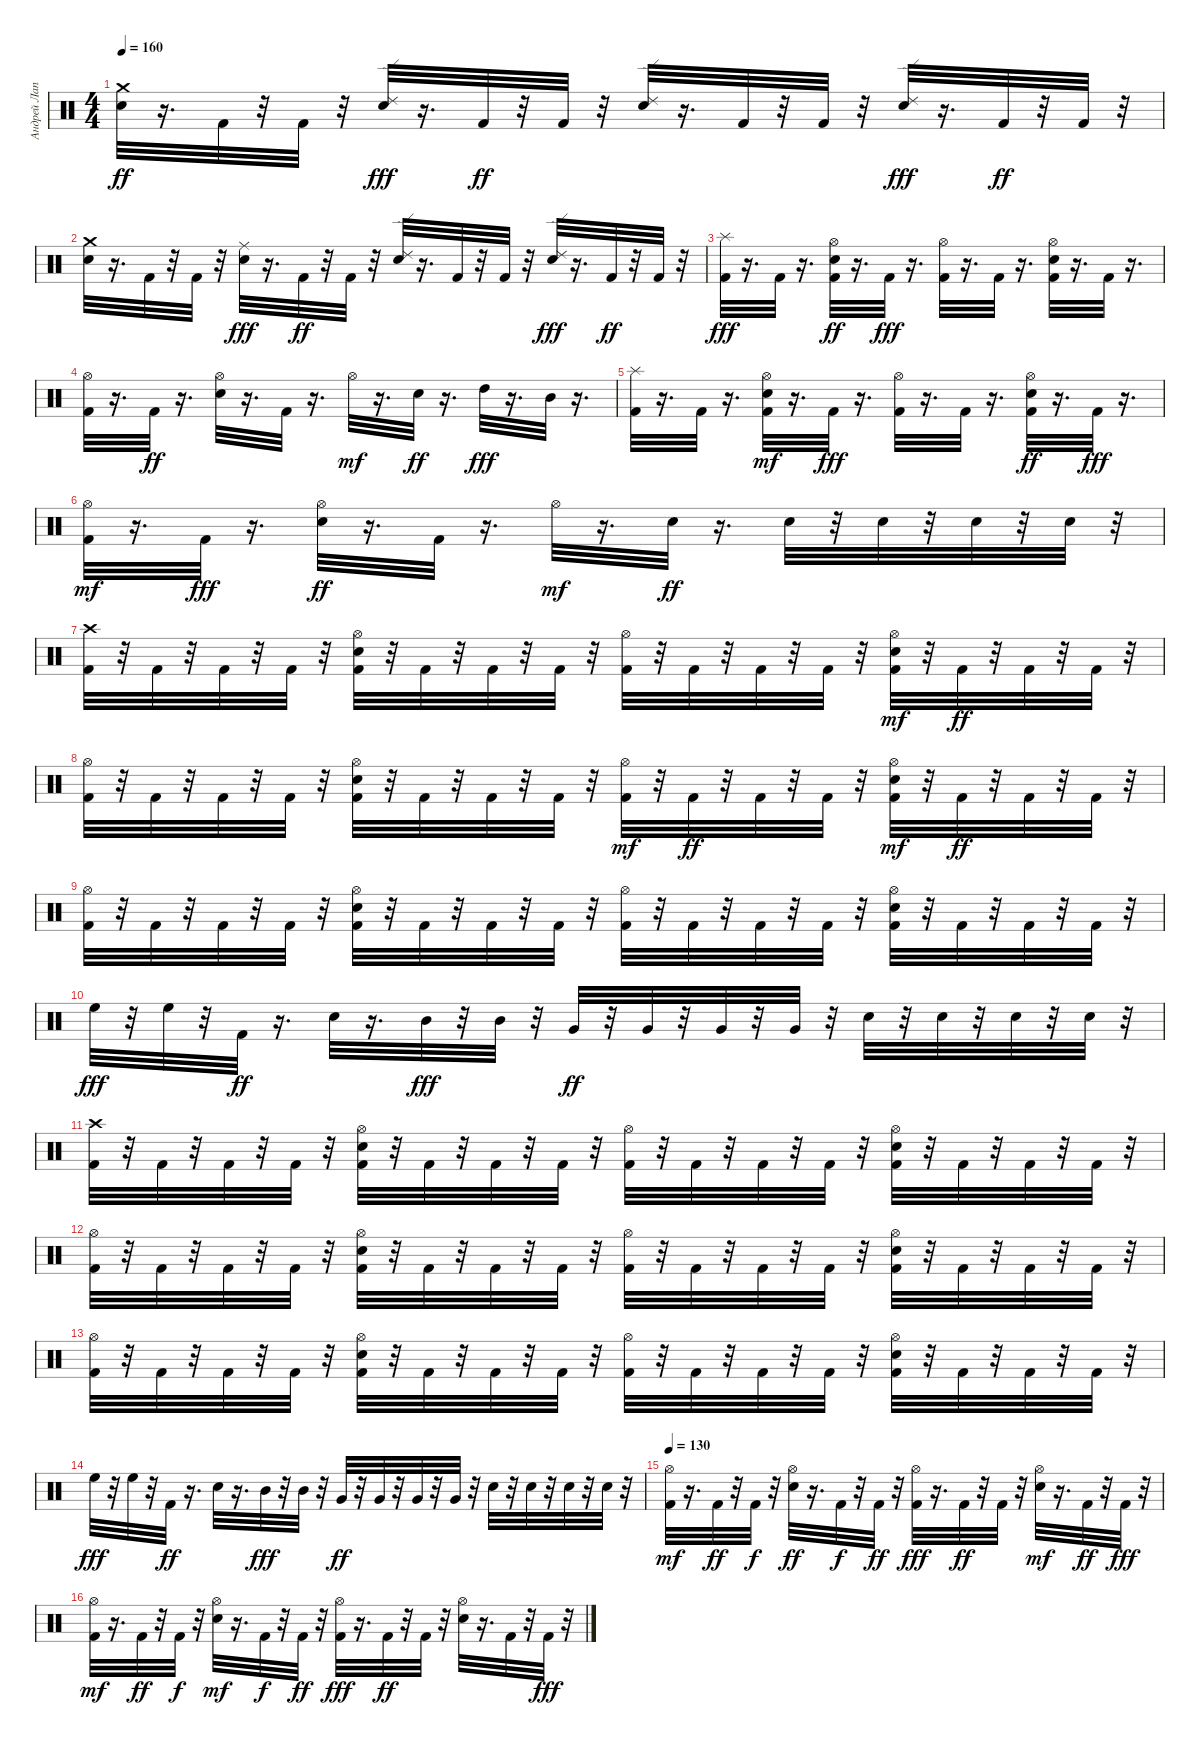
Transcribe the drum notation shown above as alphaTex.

\track ("Андрей Лаптев" "Андрей Лап") {instrument percussion}
\staff {score}
\articulation defaults
\ts (4 4)
\tempo 160
\clef neutral
\ks c
("Crash medium (hit)" "Electric Snare (hit)").32{dy ff} r.16{d} "Kick (hit) 2".32 r.32 "Kick (hit) 2".32 r.32 ("Electric Snare (hit)" "Ride (edge) 2").32{dy fff} r.16{d} "Kick (hit) 2".32{dy ff} r.32 "Kick (hit) 2".32 r.32 ("Ride (edge) 2" "Electric Snare (hit)").32 r.16{d} "Kick (hit) 2".32 r.32 "Kick (hit) 2".32 r.32 ("Electric Snare (hit)" "Ride (edge) 2").32{dy fff} r.16{d} "Kick (hit) 2".32{dy ff} r.32 "Kick (hit) 2".32 r.32 |
("Electric Snare (hit)" "Crash medium (hit)").32 r.16{d} "Kick (hit) 2".32 r.32 "Kick (hit) 2".32 r.32 ("Electric Snare (hit)" "Ride (middle)").32{dy fff} r.16{d} "Kick (hit) 2".32{dy ff} r.32 "Kick (hit) 2".32 r.32 ("Ride (edge) 2" "Electric Snare (hit)").32 r.16{d} "Kick (hit) 2".32 r.32 "Kick (hit) 2".32 r.32 ("Electric Snare (hit)" "Ride (edge) 2").32{dy fff} r.16{d} "Kick (hit) 2".32{dy ff} r.32 "Kick (hit) 2".32 r.32 |
("Kick (hit) 2" "Splash (hit)").32{dy fff} r.16{d} "Kick (hit) 2".32 r.16{d} ("Hi-Hat (open)" "Kick (hit) 2" "Electric Snare (hit)").32{dy ff} r.16{d} "Kick (hit) 2".32{dy fff} r.16{d} ("Hi-Hat (open)" "Kick (hit) 2").32 r.16{d} "Kick (hit) 2".32 r.16{d} ("Hi-Hat (open)" "Electric Snare (hit)" "Kick (hit) 2").32 r.16{d} "Kick (hit) 2".32 r.16{d} |
("Hi-Hat (open)" "Kick (hit) 2").32 r.16{d} "Kick (hit) 2".32{dy ff} r.16{d} ("Hi-Hat (open)" "Electric Snare (hit)").32 r.16{d} "Kick (hit) 2".32 r.16{d} "Hi-Hat (open)".32{dy mf} r.16{d} "Electric Snare (hit)".32{dy ff} r.16{d} "High Tom (hit)".32{dy fff} r.16{d} "Mid Tom (hit)".32 r.16{d} |
("Kick (hit) 2" "Splash (hit)").32 r.16{d} "Kick (hit) 2".32 r.16{d} ("Electric Snare (hit)" "Kick (hit) 2" "Hi-Hat (open)").32{dy mf} r.16{d} "Kick (hit) 2".32{dy fff} r.16{d} ("Hi-Hat (open)" "Kick (hit) 2").32 r.16{d} "Kick (hit) 2".32 r.16{d} ("Kick (hit) 2" "Hi-Hat (open)" "Electric Snare (hit)").32{dy ff} r.16{d} "Kick (hit) 2".32{dy fff} r.16{d} |
("Kick (hit) 2" "Hi-Hat (open)").32{dy mf} r.16{d} "Kick (hit) 2".32{dy fff} r.16{d} ("Hi-Hat (open)" "Electric Snare (hit)").32{dy ff} r.16{d} "Kick (hit) 2".32 r.16{d} "Hi-Hat (open)".32{dy mf} r.16{d} "Electric Snare (hit)".32{dy ff} r.16{d} "Electric Snare (hit)".32 r.32 "Electric Snare (hit)".32 r.32 "Electric Snare (hit)".32 r.32 "Electric Snare (hit)".32 r.32 |
("Crash high (hit)" "Kick (hit) 2").32 r.32 "Kick (hit) 2".32 r.32 "Kick (hit) 2".32 r.32 "Kick (hit) 2".32 r.32 ("Kick (hit) 2" "Hi-Hat (open)" "Electric Snare (hit)").32 r.32 "Kick (hit) 2".32 r.32 "Kick (hit) 2".32 r.32 "Kick (hit) 2".32 r.32 ("Hi-Hat (open)" "Kick (hit) 2").32 r.32 "Kick (hit) 2".32 r.32 "Kick (hit) 2".32 r.32 "Kick (hit) 2".32 r.32 ("Kick (hit) 2" "Electric Snare (hit)" "Hi-Hat (open)").32{dy mf} r.32 "Kick (hit) 2".32{dy ff} r.32 "Kick (hit) 2".32 r.32 "Kick (hit) 2".32 r.32 |
("Hi-Hat (open)" "Kick (hit) 2").32 r.32 "Kick (hit) 2".32 r.32 "Kick (hit) 2".32 r.32 "Kick (hit) 2".32 r.32 ("Kick (hit) 2" "Hi-Hat (open)" "Electric Snare (hit)").32 r.32 "Kick (hit) 2".32 r.32 "Kick (hit) 2".32 r.32 "Kick (hit) 2".32 r.32 ("Kick (hit) 2" "Hi-Hat (open)").32{dy mf} r.32 "Kick (hit) 2".32{dy ff} r.32 "Kick (hit) 2".32 r.32 "Kick (hit) 2".32 r.32 ("Kick (hit) 2" "Electric Snare (hit)" "Hi-Hat (open)").32{dy mf} r.32 "Kick (hit) 2".32{dy ff} r.32 "Kick (hit) 2".32 r.32 "Kick (hit) 2".32 r.32 |
("Hi-Hat (open)" "Kick (hit) 2").32 r.32 "Kick (hit) 2".32 r.32 "Kick (hit) 2".32 r.32 "Kick (hit) 2".32 r.32 ("Electric Snare (hit)" "Hi-Hat (open)" "Kick (hit) 2").32 r.32 "Kick (hit) 2".32 r.32 "Kick (hit) 2".32 r.32 "Kick (hit) 2".32 r.32 ("Hi-Hat (open)" "Kick (hit) 2").32 r.32 "Kick (hit) 2".32 r.32 "Kick (hit) 2".32 r.32 "Kick (hit) 2".32 r.32 ("Hi-Hat (open)" "Electric Snare (hit)" "Kick (hit) 2").32 r.32 "Kick (hit) 2".32 r.32 "Kick (hit) 2".32 r.32 "Kick (hit) 2".32 r.32 |
"High Floor Tom (hit)".32{dy fff} r.32 "High Floor Tom (hit)".32 r.32 "Kick (hit) 2".32{dy ff} r.16{d} "Electric Snare (hit)".32 r.16{d} "Mid Tom (hit)".32{dy fff} r.32 "Mid Tom (hit)".32 r.32 "Very Low Tom (hit)".32{dy ff} r.32 "Very Low Tom (hit)".32 r.32 "Very Low Tom (hit)".32 r.32 "Very Low Tom (hit)".32 r.32 "Electric Snare (hit)".32 r.32 "Electric Snare (hit)".32 r.32 "Electric Snare (hit)".32 r.32 "Electric Snare (hit)".32 r.32 |
("Crash high (hit)" "Kick (hit) 2").32 r.32 "Kick (hit) 2".32 r.32 "Kick (hit) 2".32 r.32 "Kick (hit) 2".32 r.32 ("Electric Snare (hit)" "Hi-Hat (open)" "Kick (hit) 2").32 r.32 "Kick (hit) 2".32 r.32 "Kick (hit) 2".32 r.32 "Kick (hit) 2".32 r.32 ("Hi-Hat (open)" "Kick (hit) 2").32 r.32 "Kick (hit) 2".32 r.32 "Kick (hit) 2".32 r.32 "Kick (hit) 2".32 r.32 ("Kick (hit) 2" "Hi-Hat (open)" "Electric Snare (hit)").32 r.32 "Kick (hit) 2".32 r.32 "Kick (hit) 2".32 r.32 "Kick (hit) 2".32 r.32 |
("Hi-Hat (open)" "Kick (hit) 2").32 r.32 "Kick (hit) 2".32 r.32 "Kick (hit) 2".32 r.32 "Kick (hit) 2".32 r.32 ("Hi-Hat (open)" "Kick (hit) 2" "Electric Snare (hit)").32 r.32 "Kick (hit) 2".32 r.32 "Kick (hit) 2".32 r.32 "Kick (hit) 2".32 r.32 ("Hi-Hat (open)" "Kick (hit) 2").32 r.32 "Kick (hit) 2".32 r.32 "Kick (hit) 2".32 r.32 "Kick (hit) 2".32 r.32 ("Hi-Hat (open)" "Electric Snare (hit)" "Kick (hit) 2").32 r.32 "Kick (hit) 2".32 r.32 "Kick (hit) 2".32 r.32 "Kick (hit) 2".32 r.32 |
("Hi-Hat (open)" "Kick (hit) 2").32 r.32 "Kick (hit) 2".32 r.32 "Kick (hit) 2".32 r.32 "Kick (hit) 2".32 r.32 ("Hi-Hat (open)" "Electric Snare (hit)" "Kick (hit) 2").32 r.32 "Kick (hit) 2".32 r.32 "Kick (hit) 2".32 r.32 "Kick (hit) 2".32 r.32 ("Hi-Hat (open)" "Kick (hit) 2").32 r.32 "Kick (hit) 2".32 r.32 "Kick (hit) 2".32 r.32 "Kick (hit) 2".32 r.32 ("Hi-Hat (open)" "Electric Snare (hit)" "Kick (hit) 2").32 r.32 "Kick (hit) 2".32 r.32 "Kick (hit) 2".32 r.32 "Kick (hit) 2".32 r.32 |
"High Floor Tom (hit)".32{dy fff} r.32 "High Floor Tom (hit)".32 r.32 "Kick (hit) 2".32{dy ff} r.16{d} "Electric Snare (hit)".32 r.16{d} "Mid Tom (hit)".32{dy fff} r.32 "Mid Tom (hit)".32 r.32 "Very Low Tom (hit)".32{dy ff} r.32 "Very Low Tom (hit)".32 r.32 "Very Low Tom (hit)".32 r.32 "Very Low Tom (hit)".32 r.32 "Electric Snare (hit)".32 r.32 "Electric Snare (hit)".32 r.32 "Electric Snare (hit)".32 r.32 "Electric Snare (hit)".32 r.32 |
\tempo 130
("Kick (hit) 2" "Hi-Hat (open)").32{dy mf} r.16{d} "Kick (hit) 2".32{dy ff} r.32 "Kick (hit) 2".32{dy f} r.32 ("Hi-Hat (open)" "Electric Snare (hit)").32{dy ff} r.16{d} "Kick (hit) 2".32{dy f} r.32 "Kick (hit) 2".32{dy ff} r.32 ("Hi-Hat (open)" "Kick (hit) 2").32{dy fff} r.16{d} "Kick (hit) 2".32{dy ff} r.32 "Kick (hit) 2".32 r.32 ("Electric Snare (hit)" "Hi-Hat (open)").32{dy mf} r.16{d} "Kick (hit) 2".32{dy ff} r.32 "Kick (hit) 2".32{dy fff} r.32 |
("Kick (hit) 2" "Hi-Hat (open)").32{dy mf} r.16{d} "Kick (hit) 2".32{dy ff} r.32 "Kick (hit) 2".32{dy f} r.32 ("Electric Snare (hit)" "Hi-Hat (open)").32{dy mf} r.16{d} "Kick (hit) 2".32{dy f} r.32 "Kick (hit) 2".32{dy ff} r.32 ("Hi-Hat (open)" "Kick (hit) 2").32{dy fff} r.16{d} "Kick (hit) 2".32{dy ff} r.32 "Kick (hit) 2".32 r.32 ("Hi-Hat (open)" "Electric Snare (hit)").32 r.16{d} "Kick (hit) 2".32 r.32 "Kick (hit) 2".32{dy fff} r.32
